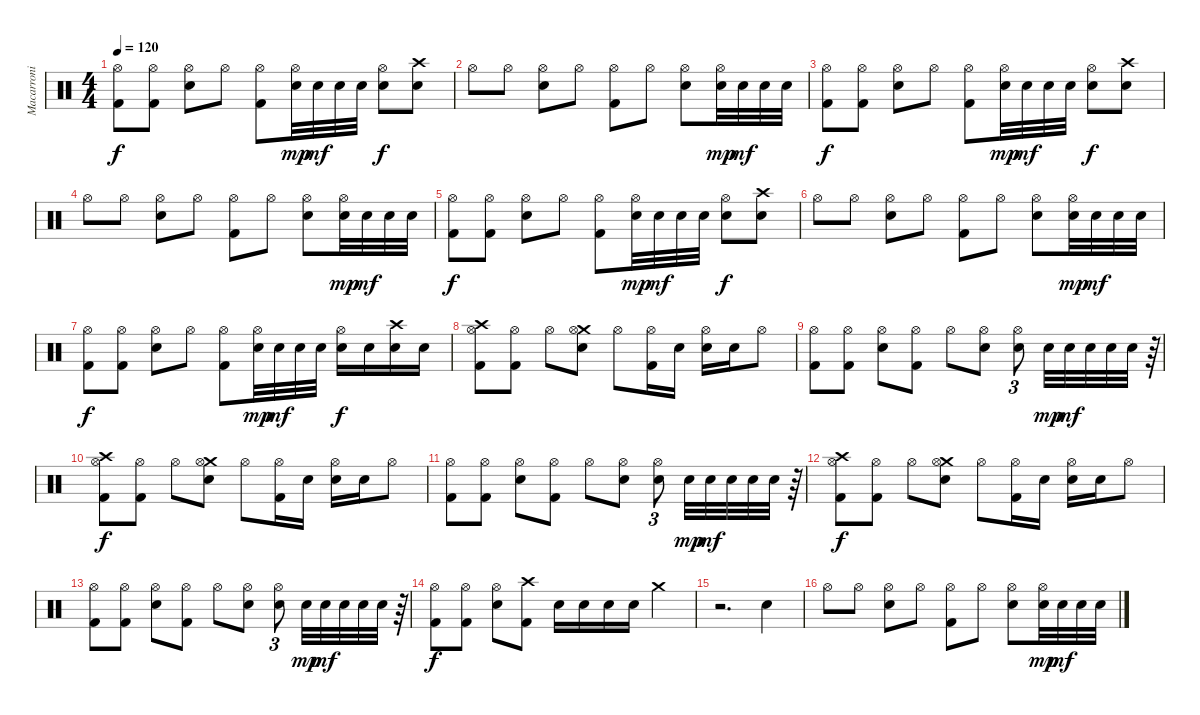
\track ("Macarroni" "Macarroni") {instrument percussion}
\staff {score}
\articulation defaults
\ts (4 4)
\tempo 120
\clef neutral
\ks c
("Hi-Hat (open)" "Kick (hit) 2").8{dy f} ("Hi-Hat (open)" "Kick (hit) 2").8 ("Hi-Hat (open)" "Electric Snare (hit)").8 "Hi-Hat (open)".8 ("Hi-Hat (open)" "Kick (hit) 2").8 ("Hi-Hat (open)" "Electric Snare (hit)").32{dy mp} "Electric Snare (hit)".32{dy mf} "Electric Snare (hit)".32 "Electric Snare (hit)".32 ("Hi-Hat (open)" "Electric Snare (hit)").8{dy f} ("Crash high (hit)" "Electric Snare (hit)").8 |
"Hi-Hat (open)".8 "Hi-Hat (open)".8 ("Hi-Hat (open)" "Electric Snare (hit)").8 "Hi-Hat (open)".8 ("Hi-Hat (open)" "Kick (hit) 2").8 "Hi-Hat (open)".8 ("Hi-Hat (open)" "Electric Snare (hit)").8 ("Hi-Hat (open)" "Electric Snare (hit)").32{dy mp} "Electric Snare (hit)".32{dy mf} "Electric Snare (hit)".32 "Electric Snare (hit)".32 |
("Hi-Hat (open)" "Kick (hit) 2").8{dy f} ("Hi-Hat (open)" "Kick (hit) 2").8 ("Hi-Hat (open)" "Electric Snare (hit)").8 "Hi-Hat (open)".8 ("Hi-Hat (open)" "Kick (hit) 2").8 ("Hi-Hat (open)" "Electric Snare (hit)").32{dy mp} "Electric Snare (hit)".32{dy mf} "Electric Snare (hit)".32 "Electric Snare (hit)".32 ("Hi-Hat (open)" "Electric Snare (hit)").8{dy f} ("Crash high (hit)" "Electric Snare (hit)").8 |
"Hi-Hat (open)".8 "Hi-Hat (open)".8 ("Hi-Hat (open)" "Electric Snare (hit)").8 "Hi-Hat (open)".8 ("Hi-Hat (open)" "Kick (hit) 2").8 "Hi-Hat (open)".8 ("Hi-Hat (open)" "Electric Snare (hit)").8 ("Hi-Hat (open)" "Electric Snare (hit)").32{dy mp} "Electric Snare (hit)".32{dy mf} "Electric Snare (hit)".32 "Electric Snare (hit)".32 |
("Hi-Hat (open)" "Kick (hit) 2").8{dy f} ("Hi-Hat (open)" "Kick (hit) 2").8 ("Hi-Hat (open)" "Electric Snare (hit)").8 "Hi-Hat (open)".8 ("Hi-Hat (open)" "Kick (hit) 2").8 ("Hi-Hat (open)" "Electric Snare (hit)").32{dy mp} "Electric Snare (hit)".32{dy mf} "Electric Snare (hit)".32 "Electric Snare (hit)".32 ("Hi-Hat (open)" "Electric Snare (hit)").8{dy f} ("Crash high (hit)" "Electric Snare (hit)").8 |
"Hi-Hat (open)".8 "Hi-Hat (open)".8 ("Hi-Hat (open)" "Electric Snare (hit)").8 "Hi-Hat (open)".8 ("Hi-Hat (open)" "Kick (hit) 2").8 "Hi-Hat (open)".8 ("Hi-Hat (open)" "Electric Snare (hit)").8 ("Hi-Hat (open)" "Electric Snare (hit)").32{dy mp} "Electric Snare (hit)".32{dy mf} "Electric Snare (hit)".32 "Electric Snare (hit)".32 |
("Hi-Hat (open)" "Kick (hit) 2").8{dy f} ("Hi-Hat (open)" "Kick (hit) 2").8 ("Hi-Hat (open)" "Electric Snare (hit)").8 "Hi-Hat (open)".8 ("Hi-Hat (open)" "Kick (hit) 2").8 ("Hi-Hat (open)" "Electric Snare (hit)").32{dy mp} "Electric Snare (hit)".32{dy mf} "Electric Snare (hit)".32 "Electric Snare (hit)".32 ("Hi-Hat (open)" "Electric Snare (hit)").16{dy f} "Electric Snare (hit)".16 ("Crash high (hit)" "Electric Snare (hit)").16 "Electric Snare (hit)".16 |
("Crash high (hit)" "Hi-Hat (open)" "Kick (hit) 2").8 ("Hi-Hat (open)" "Kick (hit) 2").8 "Hi-Hat (open)".8 ("Crash medium (hit)" "Hi-Hat (open)" "Electric Snare (hit)").8 "Hi-Hat (open)".8 ("Hi-Hat (open)" "Kick (hit) 2").16 "Electric Snare (hit)".16 ("Hi-Hat (open)" "Electric Snare (hit)").16 "Electric Snare (hit)".16 "Hi-Hat (open)".8 |
("Hi-Hat (open)" "Kick (hit) 2").8 ("Hi-Hat (open)" "Kick (hit) 2").8 ("Hi-Hat (open)" "Electric Snare (hit)").8 ("Hi-Hat (open)" "Kick (hit) 2").8 "Hi-Hat (open)".8 ("Hi-Hat (open)" "Electric Snare (hit)").8 ("Hi-Hat (open)" "Electric Snare (hit)").8{tu (3 2)} "Electric Snare (hit)".32{dy mp} "Electric Snare (hit)".32{dy mf} "Electric Snare (hit)".32 "Electric Snare (hit)".32 "Electric Snare (hit)".32 r.64{tu (3 2)} |
("Crash high (hit)" "Hi-Hat (open)" "Kick (hit) 2").8{dy f} ("Hi-Hat (open)" "Kick (hit) 2").8 "Hi-Hat (open)".8 ("Crash medium (hit)" "Hi-Hat (open)" "Electric Snare (hit)").8 "Hi-Hat (open)".8 ("Hi-Hat (open)" "Kick (hit) 2").16 "Electric Snare (hit)".16 ("Hi-Hat (open)" "Electric Snare (hit)").16 "Electric Snare (hit)".16 "Hi-Hat (open)".8 |
("Hi-Hat (open)" "Kick (hit) 2").8 ("Hi-Hat (open)" "Kick (hit) 2").8 ("Hi-Hat (open)" "Electric Snare (hit)").8 ("Hi-Hat (open)" "Kick (hit) 2").8 "Hi-Hat (open)".8 ("Hi-Hat (open)" "Electric Snare (hit)").8 ("Hi-Hat (open)" "Electric Snare (hit)").8{tu (3 2)} "Electric Snare (hit)".32{dy mp} "Electric Snare (hit)".32{dy mf} "Electric Snare (hit)".32 "Electric Snare (hit)".32 "Electric Snare (hit)".32 r.64{tu (3 2)} |
("Crash high (hit)" "Hi-Hat (open)" "Kick (hit) 2").8{dy f} ("Hi-Hat (open)" "Kick (hit) 2").8 "Hi-Hat (open)".8 ("Crash medium (hit)" "Hi-Hat (open)" "Electric Snare (hit)").8 "Hi-Hat (open)".8 ("Hi-Hat (open)" "Kick (hit) 2").16 "Electric Snare (hit)".16 ("Hi-Hat (open)" "Electric Snare (hit)").16 "Electric Snare (hit)".16 "Hi-Hat (open)".8 |
("Hi-Hat (open)" "Kick (hit) 2").8 ("Hi-Hat (open)" "Kick (hit) 2").8 ("Hi-Hat (open)" "Electric Snare (hit)").8 ("Hi-Hat (open)" "Kick (hit) 2").8 "Hi-Hat (open)".8 ("Hi-Hat (open)" "Electric Snare (hit)").8 ("Hi-Hat (open)" "Electric Snare (hit)").8{tu (3 2)} "Electric Snare (hit)".32{dy mp} "Electric Snare (hit)".32{dy mf} "Electric Snare (hit)".32 "Electric Snare (hit)".32 "Electric Snare (hit)".32 r.64{tu (3 2)} |
("Hi-Hat (open)" "Kick (hit) 2").8{dy f} ("Hi-Hat (open)" "Kick (hit) 2").8 ("Hi-Hat (open)" "Electric Snare (hit)").8 ("Crash high (hit)" "Kick (hit) 2").8 "Electric Snare (hit)".16 "Electric Snare (hit)".16 "Electric Snare (hit)".16 "Electric Snare (hit)".16 "Crash medium (hit)".4 |
r.2{d} "Electric Snare (hit)".4 |
"Hi-Hat (open)".8 "Hi-Hat (open)".8 ("Hi-Hat (open)" "Electric Snare (hit)").8 "Hi-Hat (open)".8 ("Hi-Hat (open)" "Kick (hit) 2").8 "Hi-Hat (open)".8 ("Hi-Hat (open)" "Electric Snare (hit)").8 ("Hi-Hat (open)" "Electric Snare (hit)").32{dy mp} "Electric Snare (hit)".32{dy mf} "Electric Snare (hit)".32 "Electric Snare (hit)".32
